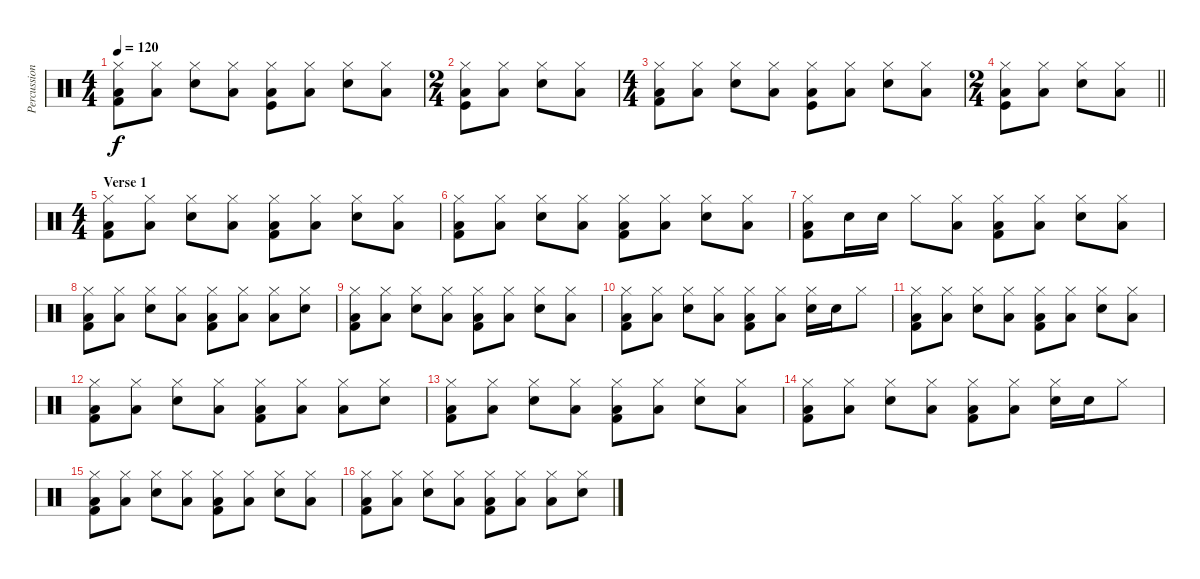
\track ("Percussion" "Percussion") {instrument percussion}
\staff
\articulation defaults
\ts (4 4)
\tempo 120
\clef neutral
\ks c
("Hi-Hat (closed)" "Low Floor Tom (hit)" "Kick (hit) 2").8{dy f} ("Hi-Hat (closed)" "Low Floor Tom (hit)").8 ("Hi-Hat (closed)" "Snare (hit) 2").8 ("Hi-Hat (closed)" "Low Floor Tom (hit)").8 ("Hi-Hat (closed)" "Low Floor Tom (hit)" "Kick (hit)").8 ("Hi-Hat (closed)" "Low Floor Tom (hit)").8 ("Hi-Hat (closed)" "Snare (hit) 2").8 ("Hi-Hat (closed)" "Low Floor Tom (hit)").8 |
\ts (2 4)
("Hi-Hat (closed)" "Low Floor Tom (hit)" "Kick (hit)").8 ("Hi-Hat (closed)" "Low Floor Tom (hit)").8 ("Hi-Hat (closed)" "Snare (hit) 2").8 ("Hi-Hat (closed)" "Low Floor Tom (hit)").8 |
\ts (4 4)
("Hi-Hat (closed)" "Low Floor Tom (hit)" "Kick (hit) 2").8 ("Hi-Hat (closed)" "Low Floor Tom (hit)").8 ("Hi-Hat (closed)" "Snare (hit) 2").8 ("Hi-Hat (closed)" "Low Floor Tom (hit)").8 ("Hi-Hat (closed)" "Low Floor Tom (hit)" "Kick (hit)").8 ("Hi-Hat (closed)" "Low Floor Tom (hit)").8 ("Hi-Hat (closed)" "Snare (hit) 2").8 ("Hi-Hat (closed)" "Low Floor Tom (hit)").8 |
\ts (2 4)
\barLineRight lightlight
("Hi-Hat (closed)" "Low Floor Tom (hit)" "Kick (hit)").8 ("Hi-Hat (closed)" "Low Floor Tom (hit)").8 ("Hi-Hat (closed)" "Snare (hit) 2").8 ("Hi-Hat (closed)" "Low Floor Tom (hit)").8 |
\ts (4 4)
\section ("" "Verse 1")
("Hi-Hat (closed)" "Low Floor Tom (hit)" "Kick (hit) 2").8 ("Hi-Hat (closed)" "Low Floor Tom (hit)").8 ("Hi-Hat (closed)" "Snare (hit) 2").8 ("Hi-Hat (closed)" "Low Floor Tom (hit)").8 ("Hi-Hat (closed)" "Low Floor Tom (hit)" "Kick (hit) 2").8 ("Hi-Hat (closed)" "Low Floor Tom (hit)").8 ("Hi-Hat (closed)" "Snare (hit) 2").8 ("Hi-Hat (closed)" "Low Floor Tom (hit)").8 |
("Hi-Hat (closed)" "Low Floor Tom (hit)" "Kick (hit) 2").8 ("Hi-Hat (closed)" "Low Floor Tom (hit)").8 ("Hi-Hat (closed)" "Snare (hit) 2").8 ("Hi-Hat (closed)" "Low Floor Tom (hit)").8 ("Hi-Hat (closed)" "Low Floor Tom (hit)" "Kick (hit) 2").8 ("Hi-Hat (closed)" "Low Floor Tom (hit)").8 ("Hi-Hat (closed)" "Snare (hit) 2").8 ("Hi-Hat (closed)" "Low Floor Tom (hit)").8 |
("Hi-Hat (closed)" "Low Floor Tom (hit)" "Kick (hit) 2").8 "Snare (hit) 2".16 "Snare (hit) 2".16 "Hi-Hat (closed)".8 ("Hi-Hat (closed)" "Low Floor Tom (hit)").8 ("Hi-Hat (closed)" "Low Floor Tom (hit)" "Kick (hit) 2").8 ("Hi-Hat (closed)" "Low Floor Tom (hit)").8 ("Hi-Hat (closed)" "Snare (hit) 2").8 ("Hi-Hat (closed)" "Low Floor Tom (hit)").8 |
("Hi-Hat (closed)" "Low Floor Tom (hit)" "Kick (hit) 2").8 ("Hi-Hat (closed)" "Low Floor Tom (hit)").8 ("Hi-Hat (closed)" "Snare (hit) 2").8 ("Hi-Hat (closed)" "Low Floor Tom (hit)").8 ("Hi-Hat (closed)" "Low Floor Tom (hit)" "Kick (hit) 2").8 ("Hi-Hat (closed)" "Low Floor Tom (hit)").8 ("Hi-Hat (closed)" "Low Floor Tom (hit)").8 ("Hi-Hat (closed)" "Snare (hit) 2").8 |
("Hi-Hat (closed)" "Low Floor Tom (hit)" "Kick (hit) 2").8 ("Hi-Hat (closed)" "Low Floor Tom (hit)").8 ("Hi-Hat (closed)" "Snare (hit) 2").8 ("Hi-Hat (closed)" "Low Floor Tom (hit)").8 ("Hi-Hat (closed)" "Low Floor Tom (hit)" "Kick (hit) 2").8 ("Hi-Hat (closed)" "Low Floor Tom (hit)").8 ("Hi-Hat (closed)" "Snare (hit) 2").8 ("Hi-Hat (closed)" "Low Floor Tom (hit)").8 |
("Hi-Hat (closed)" "Low Floor Tom (hit)" "Kick (hit) 2").8 ("Hi-Hat (closed)" "Low Floor Tom (hit)").8 ("Hi-Hat (closed)" "Snare (hit) 2").8 ("Hi-Hat (closed)" "Low Floor Tom (hit)").8 ("Hi-Hat (closed)" "Low Floor Tom (hit)" "Kick (hit) 2").8 ("Hi-Hat (closed)" "Low Floor Tom (hit)").8 ("Hi-Hat (closed)" "Snare (hit) 2").16 "Snare (hit) 2".16 "Hi-Hat (closed)".8 |
("Hi-Hat (closed)" "Low Floor Tom (hit)" "Kick (hit) 2").8 ("Hi-Hat (closed)" "Low Floor Tom (hit)").8 ("Hi-Hat (closed)" "Snare (hit) 2").8 ("Hi-Hat (closed)" "Low Floor Tom (hit)").8 ("Hi-Hat (closed)" "Low Floor Tom (hit)" "Kick (hit) 2").8 ("Hi-Hat (closed)" "Low Floor Tom (hit)").8 ("Hi-Hat (closed)" "Snare (hit) 2").8 ("Hi-Hat (closed)" "Low Floor Tom (hit)").8 |
("Hi-Hat (closed)" "Low Floor Tom (hit)" "Kick (hit) 2").8 ("Hi-Hat (closed)" "Low Floor Tom (hit)").8 ("Hi-Hat (closed)" "Snare (hit) 2").8 ("Hi-Hat (closed)" "Low Floor Tom (hit)").8 ("Hi-Hat (closed)" "Low Floor Tom (hit)" "Kick (hit) 2").8 ("Hi-Hat (closed)" "Low Floor Tom (hit)").8 ("Hi-Hat (closed)" "Low Floor Tom (hit)").8 ("Hi-Hat (closed)" "Snare (hit) 2").8 |
("Hi-Hat (closed)" "Low Floor Tom (hit)" "Kick (hit) 2").8 ("Hi-Hat (closed)" "Low Floor Tom (hit)").8 ("Hi-Hat (closed)" "Snare (hit) 2").8 ("Hi-Hat (closed)" "Low Floor Tom (hit)").8 ("Hi-Hat (closed)" "Low Floor Tom (hit)" "Kick (hit) 2").8 ("Hi-Hat (closed)" "Low Floor Tom (hit)").8 ("Hi-Hat (closed)" "Snare (hit) 2").8 ("Hi-Hat (closed)" "Low Floor Tom (hit)").8 |
("Hi-Hat (closed)" "Low Floor Tom (hit)" "Kick (hit) 2").8 ("Hi-Hat (closed)" "Low Floor Tom (hit)").8 ("Hi-Hat (closed)" "Snare (hit) 2").8 ("Hi-Hat (closed)" "Low Floor Tom (hit)").8 ("Hi-Hat (closed)" "Low Floor Tom (hit)" "Kick (hit) 2").8 ("Hi-Hat (closed)" "Low Floor Tom (hit)").8 ("Hi-Hat (closed)" "Snare (hit) 2").16 "Snare (hit) 2".16 "Hi-Hat (closed)".8 |
("Hi-Hat (closed)" "Low Floor Tom (hit)" "Kick (hit) 2").8 ("Hi-Hat (closed)" "Low Floor Tom (hit)").8 ("Hi-Hat (closed)" "Snare (hit) 2").8 ("Hi-Hat (closed)" "Low Floor Tom (hit)").8 ("Hi-Hat (closed)" "Low Floor Tom (hit)" "Kick (hit) 2").8 ("Hi-Hat (closed)" "Low Floor Tom (hit)").8 ("Hi-Hat (closed)" "Snare (hit) 2").8 ("Hi-Hat (closed)" "Low Floor Tom (hit)").8 |
("Hi-Hat (closed)" "Low Floor Tom (hit)" "Kick (hit) 2").8 ("Hi-Hat (closed)" "Low Floor Tom (hit)").8 ("Hi-Hat (closed)" "Snare (hit) 2").8 ("Hi-Hat (closed)" "Low Floor Tom (hit)").8 ("Hi-Hat (closed)" "Low Floor Tom (hit)" "Kick (hit) 2").8 ("Hi-Hat (closed)" "Low Floor Tom (hit)").8 ("Hi-Hat (closed)" "Low Floor Tom (hit)").8 ("Hi-Hat (closed)" "Snare (hit) 2").8
